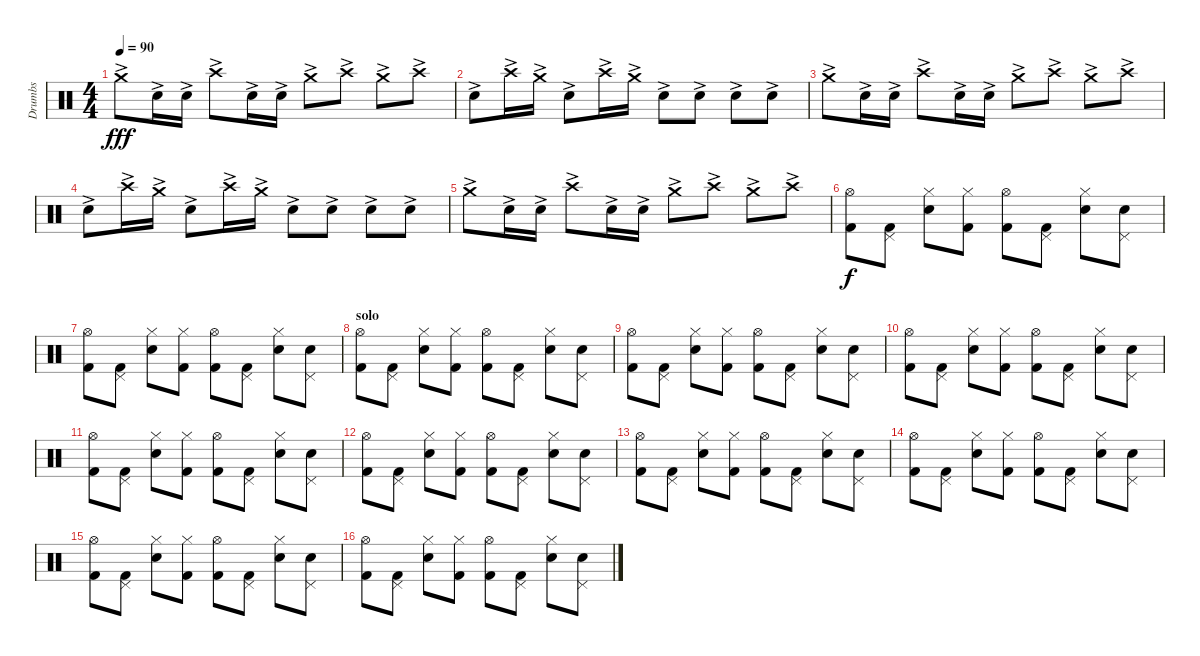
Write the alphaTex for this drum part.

\track ("Drumbs" "Drumbs") {instrument percussion}
\staff {score}
\articulation defaults
\ts (4 4)
\tempo 90
\clef neutral
\ks c "Crash medium (hit)"{ac}.8{dy fff} "Electric Snare (hit)"{ac}.16 "Electric Snare (hit)"{ac}.16 "Crash high (hit)"{ac}.8 "Electric Snare (hit)"{ac}.16 "Electric Snare (hit)"{ac}.16 "Crash medium (hit)"{ac}.8 "Crash high (hit)"{ac}.8 "Crash medium (hit)"{ac}.8 "Crash high (hit)"{ac}.8
|
"Electric Snare (hit)"{ac}.8 "Crash high (hit)"{ac}.16 "Crash medium (hit)"{ac}.16 "Electric Snare (hit)"{ac}.8 "Crash high (hit)"{ac}.16 "Crash medium (hit)"{ac}.16 "Electric Snare (hit)"{ac}.8 "Electric Snare (hit)"{ac}.8 "Electric Snare (hit)"{ac}.8 "Electric Snare (hit)"{ac}.8 |
"Crash medium (hit)"{ac}.8 "Electric Snare (hit)"{ac}.16 "Electric Snare (hit)"{ac}.16 "Crash high (hit)"{ac}.8 "Electric Snare (hit)"{ac}.16 "Electric Snare (hit)"{ac}.16 "Crash medium (hit)"{ac}.8 "Crash high (hit)"{ac}.8 "Crash medium (hit)"{ac}.8 "Crash high (hit)"{ac}.8 |
"Electric Snare (hit)"{ac}.8 "Crash high (hit)"{ac}.16 "Crash medium (hit)"{ac}.16 "Electric Snare (hit)"{ac}.8 "Crash high (hit)"{ac}.16 "Crash medium (hit)"{ac}.16 "Electric Snare (hit)"{ac}.8 "Electric Snare (hit)"{ac}.8 "Electric Snare (hit)"{ac}.8 "Electric Snare (hit)"{ac}.8 |
"Crash medium (hit)"{ac}.8 "Electric Snare (hit)"{ac}.16 "Electric Snare (hit)"{ac}.16 "Crash high (hit)"{ac}.8 "Electric Snare (hit)"{ac}.16 "Electric Snare (hit)"{ac}.16 "Crash medium (hit)"{ac}.8 "Crash high (hit)"{ac}.8 "Crash medium (hit)"{ac}.8 "Crash high (hit)"{ac}.8 |
("Hi-Hat (open)" "Kick (hit) 2").8{dy f} ("Pedal Hi-Hat (hit)" "Kick (hit) 2").8 ("Hi-Hat (closed)" "Snare (hit) 2").8 ("Hi-Hat (closed)" "Kick (hit) 2").8 ("Hi-Hat (open)" "Kick (hit) 2").8 ("Pedal Hi-Hat (hit)" "Kick (hit) 2").8 ("Hi-Hat (closed)" "Snare (hit) 2").8 ("Pedal Hi-Hat (hit)" "Snare (hit) 2").8 |
("Hi-Hat (open)" "Kick (hit) 2").8 ("Pedal Hi-Hat (hit)" "Kick (hit) 2").8 ("Hi-Hat (closed)" "Snare (hit) 2").8 ("Hi-Hat (closed)" "Kick (hit) 2").8 ("Hi-Hat (open)" "Kick (hit) 2").8 ("Pedal Hi-Hat (hit)" "Kick (hit) 2").8 ("Hi-Hat (closed)" "Snare (hit) 2").8 ("Pedal Hi-Hat (hit)" "Snare (hit) 2").8 |
\section ("" "solo")
("Hi-Hat (open)" "Kick (hit) 2").8 ("Pedal Hi-Hat (hit)" "Kick (hit) 2").8 ("Hi-Hat (closed)" "Snare (hit) 2").8 ("Hi-Hat (closed)" "Kick (hit) 2").8 ("Hi-Hat (open)" "Kick (hit) 2").8 ("Pedal Hi-Hat (hit)" "Kick (hit) 2").8 ("Hi-Hat (closed)" "Snare (hit) 2").8 ("Pedal Hi-Hat (hit)" "Snare (hit) 2").8 |
("Hi-Hat (open)" "Kick (hit) 2").8 ("Pedal Hi-Hat (hit)" "Kick (hit) 2").8 ("Hi-Hat (closed)" "Snare (hit) 2").8 ("Hi-Hat (closed)" "Kick (hit) 2").8 ("Hi-Hat (open)" "Kick (hit) 2").8 ("Pedal Hi-Hat (hit)" "Kick (hit) 2").8 ("Hi-Hat (closed)" "Snare (hit) 2").8 ("Pedal Hi-Hat (hit)" "Snare (hit) 2").8 |
("Hi-Hat (open)" "Kick (hit) 2").8 ("Pedal Hi-Hat (hit)" "Kick (hit) 2").8 ("Hi-Hat (closed)" "Snare (hit) 2").8 ("Hi-Hat (closed)" "Kick (hit) 2").8 ("Hi-Hat (open)" "Kick (hit) 2").8 ("Pedal Hi-Hat (hit)" "Kick (hit) 2").8 ("Hi-Hat (closed)" "Snare (hit) 2").8 ("Pedal Hi-Hat (hit)" "Snare (hit) 2").8 |
("Hi-Hat (open)" "Kick (hit) 2").8 ("Pedal Hi-Hat (hit)" "Kick (hit) 2").8 ("Hi-Hat (closed)" "Snare (hit) 2").8 ("Hi-Hat (closed)" "Kick (hit) 2").8 ("Hi-Hat (open)" "Kick (hit) 2").8 ("Pedal Hi-Hat (hit)" "Kick (hit) 2").8 ("Hi-Hat (closed)" "Snare (hit) 2").8 ("Pedal Hi-Hat (hit)" "Snare (hit) 2").8 |
("Hi-Hat (open)" "Kick (hit) 2").8 ("Pedal Hi-Hat (hit)" "Kick (hit) 2").8 ("Hi-Hat (closed)" "Snare (hit) 2").8 ("Hi-Hat (closed)" "Kick (hit) 2").8 ("Hi-Hat (open)" "Kick (hit) 2").8 ("Pedal Hi-Hat (hit)" "Kick (hit) 2").8 ("Hi-Hat (closed)" "Snare (hit) 2").8 ("Pedal Hi-Hat (hit)" "Snare (hit) 2").8 |
("Hi-Hat (open)" "Kick (hit) 2").8 ("Pedal Hi-Hat (hit)" "Kick (hit) 2").8 ("Hi-Hat (closed)" "Snare (hit) 2").8 ("Hi-Hat (closed)" "Kick (hit) 2").8 ("Hi-Hat (open)" "Kick (hit) 2").8 ("Pedal Hi-Hat (hit)" "Kick (hit) 2").8 ("Hi-Hat (closed)" "Snare (hit) 2").8 ("Pedal Hi-Hat (hit)" "Snare (hit) 2").8 |
("Hi-Hat (open)" "Kick (hit) 2").8 ("Pedal Hi-Hat (hit)" "Kick (hit) 2").8 ("Hi-Hat (closed)" "Snare (hit) 2").8 ("Hi-Hat (closed)" "Kick (hit) 2").8 ("Hi-Hat (open)" "Kick (hit) 2").8 ("Pedal Hi-Hat (hit)" "Kick (hit) 2").8 ("Hi-Hat (closed)" "Snare (hit) 2").8 ("Pedal Hi-Hat (hit)" "Snare (hit) 2").8 |
("Hi-Hat (open)" "Kick (hit) 2").8 ("Pedal Hi-Hat (hit)" "Kick (hit) 2").8 ("Hi-Hat (closed)" "Snare (hit) 2").8 ("Hi-Hat (closed)" "Kick (hit) 2").8 ("Hi-Hat (open)" "Kick (hit) 2").8 ("Pedal Hi-Hat (hit)" "Kick (hit) 2").8 ("Hi-Hat (closed)" "Snare (hit) 2").8 ("Pedal Hi-Hat (hit)" "Snare (hit) 2").8 |
("Hi-Hat (open)" "Kick (hit) 2").8 ("Pedal Hi-Hat (hit)" "Kick (hit) 2").8 ("Hi-Hat (closed)" "Snare (hit) 2").8 ("Hi-Hat (closed)" "Kick (hit) 2").8 ("Hi-Hat (open)" "Kick (hit) 2").8 ("Pedal Hi-Hat (hit)" "Kick (hit) 2").8 ("Hi-Hat (closed)" "Snare (hit) 2").8 ("Pedal Hi-Hat (hit)" "Snare (hit) 2").8
